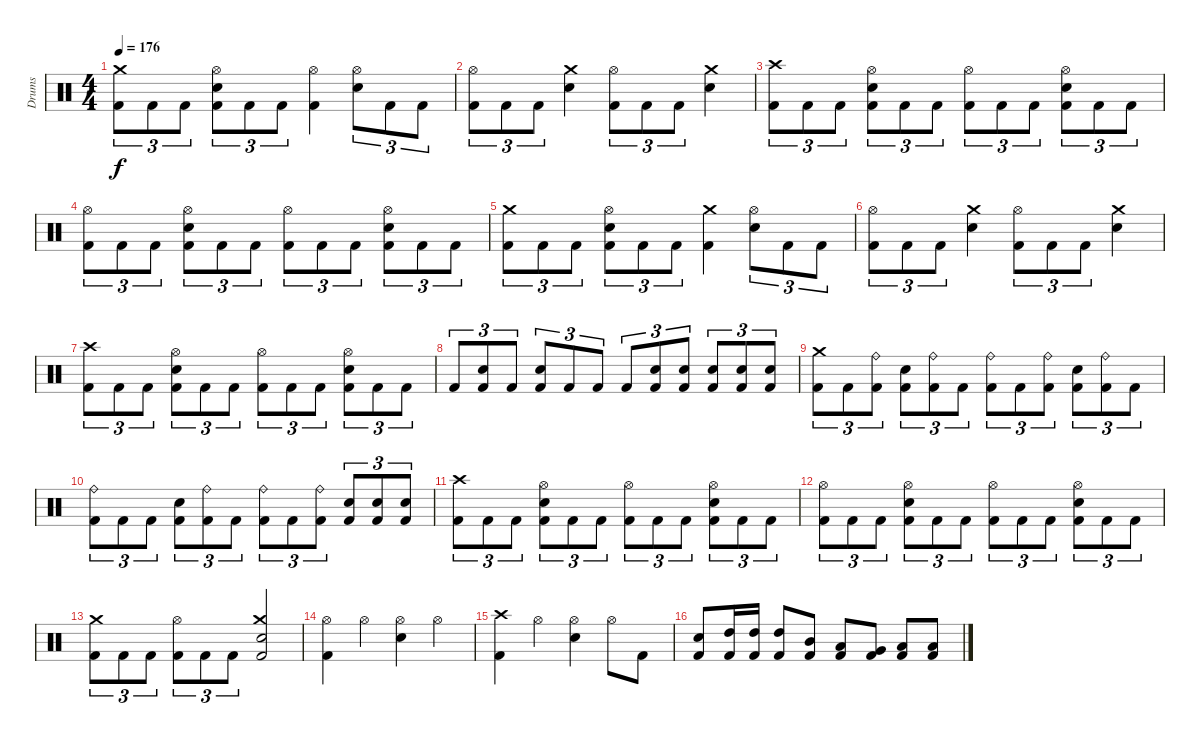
\track ("Drums" "Drums") {instrument percussion}
\staff {score}
\articulation defaults
\ts (4 4)
\section ("" "")
\tempo 176
\clef neutral
\ks c
("Kick (hit) 2" "Crash medium (hit)").8{tu (3 2) dy f} "Kick (hit) 2".8{tu (3 2)} "Kick (hit) 2".8{tu (3 2)} ("Kick (hit) 2" "Electric Snare (hit)" "Hi-Hat (open)").8{tu (3 2)} "Kick (hit) 2".8{tu (3 2)} "Kick (hit) 2".8{tu (3 2)} ("Kick (hit) 2" "Hi-Hat (open)").4 ("Electric Snare (hit)" "Hi-Hat (open)").8{tu (3 2)} "Kick (hit) 2".8{tu (3 2)} "Kick (hit) 2".8{tu (3 2)} |
("Kick (hit) 2" "Hi-Hat (open)").8{tu (3 2)} "Kick (hit) 2".8{tu (3 2)} "Kick (hit) 2".8{tu (3 2)} ("Electric Snare (hit)" "Crash medium (hit)").4 ("Kick (hit) 2" "Hi-Hat (open)").8{tu (3 2)} "Kick (hit) 2".8{tu (3 2)} "Kick (hit) 2".8{tu (3 2)} ("Electric Snare (hit)" "Crash medium (hit)").4 |
("Kick (hit) 2" "Crash high (hit)").8{tu (3 2)} "Kick (hit) 2".8{tu (3 2)} "Kick (hit) 2".8{tu (3 2)} ("Kick (hit) 2" "Electric Snare (hit)" "Hi-Hat (open)").8{tu (3 2)} "Kick (hit) 2".8{tu (3 2)} "Kick (hit) 2".8{tu (3 2)} ("Kick (hit) 2" "Hi-Hat (open)").8{tu (3 2)} "Kick (hit) 2".8{tu (3 2)} "Kick (hit) 2".8{tu (3 2)} ("Kick (hit) 2" "Electric Snare (hit)" "Hi-Hat (open)").8{tu (3 2)} "Kick (hit) 2".8{tu (3 2)} "Kick (hit) 2".8{tu (3 2)} |
("Kick (hit) 2" "Hi-Hat (open)").8{tu (3 2)} "Kick (hit) 2".8{tu (3 2)} "Kick (hit) 2".8{tu (3 2)} ("Kick (hit) 2" "Electric Snare (hit)" "Hi-Hat (open)").8{tu (3 2)} "Kick (hit) 2".8{tu (3 2)} "Kick (hit) 2".8{tu (3 2)} ("Kick (hit) 2" "Hi-Hat (open)").8{tu (3 2)} "Kick (hit) 2".8{tu (3 2)} "Kick (hit) 2".8{tu (3 2)} ("Kick (hit) 2" "Electric Snare (hit)" "Hi-Hat (open)").8{tu (3 2)} "Kick (hit) 2".8{tu (3 2)} "Kick (hit) 2".8{tu (3 2)} |
("Kick (hit) 2" "Crash medium (hit)").8{tu (3 2)} "Kick (hit) 2".8{tu (3 2)} "Kick (hit) 2".8{tu (3 2)} ("Kick (hit) 2" "Electric Snare (hit)" "Hi-Hat (open)").8{tu (3 2)} "Kick (hit) 2".8{tu (3 2)} "Kick (hit) 2".8{tu (3 2)} ("Kick (hit) 2" "Crash medium (hit)").4 ("Electric Snare (hit)" "Hi-Hat (open)").8{tu (3 2)} "Kick (hit) 2".8{tu (3 2)} "Kick (hit) 2".8{tu (3 2)} |
("Kick (hit) 2" "Hi-Hat (open)").8{tu (3 2)} "Kick (hit) 2".8{tu (3 2)} "Kick (hit) 2".8{tu (3 2)} ("Electric Snare (hit)" "Crash medium (hit)").4 ("Kick (hit) 2" "Hi-Hat (open)").8{tu (3 2)} "Kick (hit) 2".8{tu (3 2)} "Kick (hit) 2".8{tu (3 2)} ("Electric Snare (hit)" "Crash medium (hit)").4 |
("Kick (hit) 2" "Crash high (hit)").8{tu (3 2)} "Kick (hit) 2".8{tu (3 2)} "Kick (hit) 2".8{tu (3 2)} ("Kick (hit) 2" "Electric Snare (hit)" "Hi-Hat (open)").8{tu (3 2)} "Kick (hit) 2".8{tu (3 2)} "Kick (hit) 2".8{tu (3 2)} ("Kick (hit) 2" "Hi-Hat (open)").8{tu (3 2)} "Kick (hit) 2".8{tu (3 2)} "Kick (hit) 2".8{tu (3 2)} ("Kick (hit) 2" "Electric Snare (hit)" "Hi-Hat (open)").8{tu (3 2)} "Kick (hit) 2".8{tu (3 2)} "Kick (hit) 2".8{tu (3 2)} |
"Kick (hit) 2".8{tu (3 2)} ("Kick (hit) 2" "Electric Snare (hit)").8{tu (3 2)} "Kick (hit) 2".8{tu (3 2)} ("Kick (hit) 2" "Electric Snare (hit)").8{tu (3 2)} "Kick (hit) 2".8{tu (3 2)} "Kick (hit) 2".8{tu (3 2)} "Kick (hit) 2".8{tu (3 2)} ("Kick (hit) 2" "Electric Snare (hit)").8{tu (3 2)} ("Kick (hit) 2" "Electric Snare (hit)").8{tu (3 2)} ("Kick (hit) 2" "Electric Snare (hit)").8{tu (3 2)} ("Kick (hit) 2" "Electric Snare (hit)").8{tu (3 2)} ("Kick (hit) 2" "Electric Snare (hit)").8{tu (3 2)} |
("Kick (hit) 2" "Crash medium (hit)").8{tu (3 2)} "Kick (hit) 2".8{tu (3 2)} ("Kick (hit) 2" "Ride (bell)").8{tu (3 2)} ("Kick (hit) 2" "Electric Snare (hit)").8{tu (3 2)} ("Kick (hit) 2" "Ride (bell)").8{tu (3 2)} "Kick (hit) 2".8{tu (3 2)} ("Kick (hit) 2" "Ride (bell)").8{tu (3 2)} "Kick (hit) 2".8{tu (3 2)} ("Kick (hit) 2" "Ride (bell)").8{tu (3 2)} ("Kick (hit) 2" "Electric Snare (hit)").8{tu (3 2)} ("Kick (hit) 2" "Ride (bell)").8{tu (3 2)} "Kick (hit) 2".8{tu (3 2)} |
("Kick (hit) 2" "Ride (bell)").8{tu (3 2)} "Kick (hit) 2".8{tu (3 2)} "Kick (hit) 2".8{tu (3 2)} ("Kick (hit) 2" "Electric Snare (hit)").8{tu (3 2)} ("Kick (hit) 2" "Ride (bell)").8{tu (3 2)} "Kick (hit) 2".8{tu (3 2)} ("Kick (hit) 2" "Ride (bell)").8{tu (3 2)} "Kick (hit) 2".8{tu (3 2)} ("Kick (hit) 2" "Ride (bell)").8{tu (3 2)} ("Kick (hit) 2" "Electric Snare (hit)").8{tu (3 2)} ("Kick (hit) 2" "Electric Snare (hit)").8{tu (3 2)} ("Kick (hit) 2" "Electric Snare (hit)").8{tu (3 2)} |
("Kick (hit) 2" "Crash high (hit)").8{tu (3 2)} "Kick (hit) 2".8{tu (3 2)} "Kick (hit) 2".8{tu (3 2)} ("Kick (hit) 2" "Electric Snare (hit)" "Hi-Hat (open)").8{tu (3 2)} "Kick (hit) 2".8{tu (3 2)} "Kick (hit) 2".8{tu (3 2)} ("Kick (hit) 2" "Hi-Hat (open)").8{tu (3 2)} "Kick (hit) 2".8{tu (3 2)} "Kick (hit) 2".8{tu (3 2)} ("Kick (hit) 2" "Electric Snare (hit)" "Hi-Hat (open)").8{tu (3 2)} "Kick (hit) 2".8{tu (3 2)} "Kick (hit) 2".8{tu (3 2)} |
("Kick (hit) 2" "Hi-Hat (open)").8{tu (3 2)} "Kick (hit) 2".8{tu (3 2)} "Kick (hit) 2".8{tu (3 2)} ("Kick (hit) 2" "Electric Snare (hit)" "Hi-Hat (open)").8{tu (3 2)} "Kick (hit) 2".8{tu (3 2)} "Kick (hit) 2".8{tu (3 2)} ("Kick (hit) 2" "Hi-Hat (open)").8{tu (3 2)} "Kick (hit) 2".8{tu (3 2)} "Kick (hit) 2".8{tu (3 2)} ("Kick (hit) 2" "Electric Snare (hit)" "Hi-Hat (open)").8{tu (3 2)} "Kick (hit) 2".8{tu (3 2)} "Kick (hit) 2".8{tu (3 2)} |
("Kick (hit) 2" "Crash medium (hit)").8{tu (3 2)} "Kick (hit) 2".8{tu (3 2)} "Kick (hit) 2".8{tu (3 2)} ("Kick (hit) 2" "Hi-Hat (open)").8{tu (3 2)} "Kick (hit) 2".8{tu (3 2)} "Kick (hit) 2".8{tu (3 2)} ("Kick (hit) 2" "Electric Snare (hit)" "Crash medium (hit)").2 |
("Kick (hit) 2" "Hi-Hat (open)").4 "Hi-Hat (open)".4 ("Electric Snare (hit)" "Hi-Hat (open)").4 "Hi-Hat (open)".4 |
("Kick (hit) 2" "Crash high (hit)").4 "Hi-Hat (open)".4 ("Electric Snare (hit)" "Hi-Hat (open)").4 "Hi-Hat (open)".8 "Kick (hit) 2".8 |
("Kick (hit) 2" "Electric Snare (hit)").8 ("Kick (hit) 2" "High Tom (hit)").16 ("Kick (hit) 2" "High Tom (hit)").16 ("Kick (hit) 2" "High Tom (hit)").8 ("Kick (hit) 2" "Mid Tom (hit)").8 ("Kick (hit) 2" "Low Tom (hit)").8 ("Kick (hit) 2" "Very Low Tom (hit)").8 ("Kick (hit) 2" "Low Floor Tom (hit)").8 ("Kick (hit) 2" "Low Floor Tom (hit)").8
